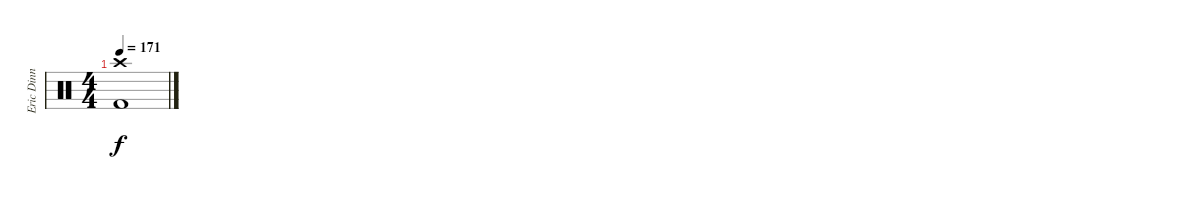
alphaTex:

\track ("Eric Dinn" "Eric Dinn") {instrument percussion}
\staff {score}
\articulation defaults
\ts (4 4)
\tempo 171
\clef neutral
\ks c
("Crash high (hit)" "Kick (hit) 2").1{dy f}
